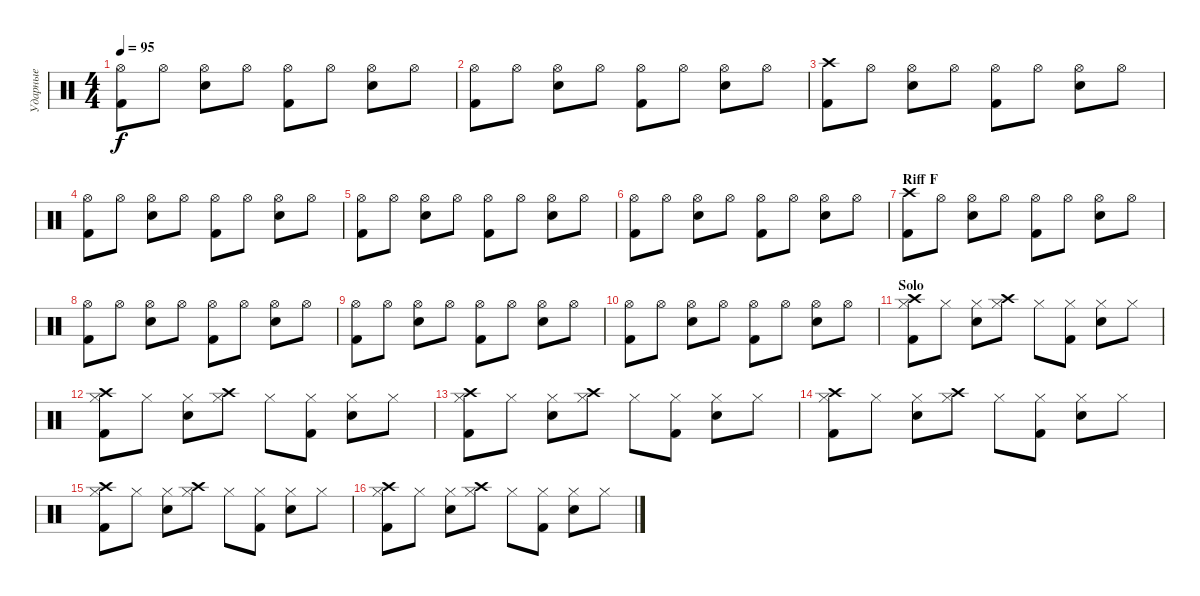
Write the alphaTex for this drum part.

\track ("Ударные" "Ударные") {instrument percussion}
\staff {score}
\articulation defaults
\ts (4 4)
\tempo 95
\clef neutral
\ks c
("Hi-Hat (open)" "Kick (hit) 2").8{dy f} "Hi-Hat (open)".8 ("Hi-Hat (open)" "Snare (hit) 2").8 "Hi-Hat (open)".8 ("Hi-Hat (open)" "Kick (hit) 2").8 "Hi-Hat (open)".8 ("Hi-Hat (open)" "Snare (hit) 2").8 "Hi-Hat (open)".8 |
("Hi-Hat (open)" "Kick (hit) 2").8 "Hi-Hat (open)".8 ("Hi-Hat (open)" "Snare (hit) 2").8 "Hi-Hat (open)".8 ("Hi-Hat (open)" "Kick (hit) 2").8 "Hi-Hat (open)".8 ("Hi-Hat (open)" "Snare (hit) 2").8 "Hi-Hat (open)".8 |
("Crash high (hit)" "Kick (hit) 2").8 "Hi-Hat (open)".8 ("Hi-Hat (open)" "Snare (hit) 2").8 "Hi-Hat (open)".8 ("Hi-Hat (open)" "Kick (hit) 2").8 "Hi-Hat (open)".8 ("Hi-Hat (open)" "Snare (hit) 2").8 "Hi-Hat (open)".8 |
("Hi-Hat (open)" "Kick (hit) 2").8 "Hi-Hat (open)".8 ("Hi-Hat (open)" "Snare (hit) 2").8 "Hi-Hat (open)".8 ("Hi-Hat (open)" "Kick (hit) 2").8 "Hi-Hat (open)".8 ("Hi-Hat (open)" "Snare (hit) 2").8 "Hi-Hat (open)".8 |
("Hi-Hat (open)" "Kick (hit) 2").8 "Hi-Hat (open)".8 ("Hi-Hat (open)" "Snare (hit) 2").8 "Hi-Hat (open)".8 ("Hi-Hat (open)" "Kick (hit) 2").8 "Hi-Hat (open)".8 ("Hi-Hat (open)" "Snare (hit) 2").8 "Hi-Hat (open)".8 |
("Hi-Hat (open)" "Kick (hit) 2").8 "Hi-Hat (open)".8 ("Hi-Hat (open)" "Snare (hit) 2").8 "Hi-Hat (open)".8 ("Hi-Hat (open)" "Kick (hit) 2").8 "Hi-Hat (open)".8 ("Hi-Hat (open)" "Snare (hit) 2").8 "Hi-Hat (open)".8 |
\section ("" "Riff F")
("Crash high (hit)" "Kick (hit) 2").8 "Hi-Hat (open)".8 ("Hi-Hat (open)" "Snare (hit) 2").8 "Hi-Hat (open)".8 ("Hi-Hat (open)" "Kick (hit) 2").8 "Hi-Hat (open)".8 ("Hi-Hat (open)" "Snare (hit) 2").8 "Hi-Hat (open)".8 |
("Hi-Hat (open)" "Kick (hit) 2").8 "Hi-Hat (open)".8 ("Hi-Hat (open)" "Snare (hit) 2").8 "Hi-Hat (open)".8 ("Hi-Hat (open)" "Kick (hit) 2").8 "Hi-Hat (open)".8 ("Hi-Hat (open)" "Snare (hit) 2").8 "Hi-Hat (open)".8 |
("Hi-Hat (open)" "Kick (hit) 2").8 "Hi-Hat (open)".8 ("Hi-Hat (open)" "Snare (hit) 2").8 "Hi-Hat (open)".8 ("Hi-Hat (open)" "Kick (hit) 2").8 "Hi-Hat (open)".8 ("Hi-Hat (open)" "Snare (hit) 2").8 "Hi-Hat (open)".8 |
("Hi-Hat (open)" "Kick (hit) 2").8 "Hi-Hat (open)".8 ("Hi-Hat (open)" "Snare (hit) 2").8 "Hi-Hat (open)".8 ("Hi-Hat (open)" "Kick (hit) 2").8 "Hi-Hat (open)".8 ("Hi-Hat (open)" "Snare (hit) 2").8 "Hi-Hat (open)".8 |
\section ("" "Solo")
("Crash high (hit)" "Hi-Hat (closed)" "Kick (hit) 2").8 "Hi-Hat (closed)".8 ("Hi-Hat (closed)" "Snare (hit) 2").8 ("Crash high (hit)" "Hi-Hat (closed)").8 "Hi-Hat (closed)".8 ("Hi-Hat (closed)" "Kick (hit) 2").8 ("Hi-Hat (closed)" "Snare (hit) 2").8 "Hi-Hat (closed)".8 |
("Crash high (hit)" "Hi-Hat (closed)" "Kick (hit) 2").8 "Hi-Hat (closed)".8 ("Hi-Hat (closed)" "Snare (hit) 2").8 ("Crash high (hit)" "Hi-Hat (closed)").8 "Hi-Hat (closed)".8 ("Hi-Hat (closed)" "Kick (hit) 2").8 ("Hi-Hat (closed)" "Snare (hit) 2").8 "Hi-Hat (closed)".8 |
("Crash high (hit)" "Hi-Hat (closed)" "Kick (hit) 2").8 "Hi-Hat (closed)".8 ("Hi-Hat (closed)" "Snare (hit) 2").8 ("Crash high (hit)" "Hi-Hat (closed)").8 "Hi-Hat (closed)".8 ("Hi-Hat (closed)" "Kick (hit) 2").8 ("Hi-Hat (closed)" "Snare (hit) 2").8 "Hi-Hat (closed)".8 |
("Crash high (hit)" "Hi-Hat (closed)" "Kick (hit) 2").8 "Hi-Hat (closed)".8 ("Hi-Hat (closed)" "Snare (hit) 2").8 ("Crash high (hit)" "Hi-Hat (closed)").8 "Hi-Hat (closed)".8 ("Hi-Hat (closed)" "Kick (hit) 2").8 ("Hi-Hat (closed)" "Snare (hit) 2").8 "Hi-Hat (closed)".8 |
("Crash high (hit)" "Hi-Hat (closed)" "Kick (hit) 2").8 "Hi-Hat (closed)".8 ("Hi-Hat (closed)" "Snare (hit) 2").8 ("Crash high (hit)" "Hi-Hat (closed)").8 "Hi-Hat (closed)".8 ("Hi-Hat (closed)" "Kick (hit) 2").8 ("Hi-Hat (closed)" "Snare (hit) 2").8 "Hi-Hat (closed)".8 |
("Crash high (hit)" "Hi-Hat (closed)" "Kick (hit) 2").8 "Hi-Hat (closed)".8 ("Hi-Hat (closed)" "Snare (hit) 2").8 ("Crash high (hit)" "Hi-Hat (closed)").8 "Hi-Hat (closed)".8 ("Hi-Hat (closed)" "Kick (hit) 2").8 ("Hi-Hat (closed)" "Snare (hit) 2").8 "Hi-Hat (closed)".8
